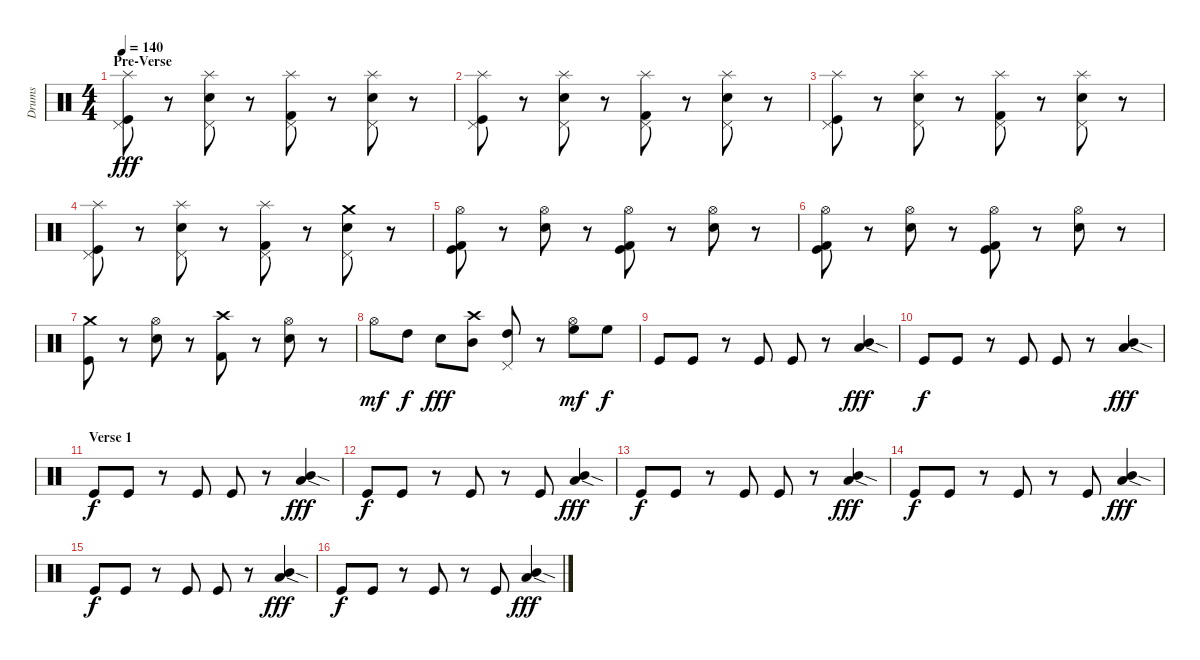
\track ("Drums" "Drums") {instrument percussion}
\staff {score}
\articulation defaults
\ts (4 4)
\section ("" "Pre-Verse")
\tempo 140
\clef neutral
\ks c
("Splash (hit)" "Pedal Hi-Hat (hit)" "Kick (hit)").8{dy fff} r.8 ("Splash (hit)" "Pedal Hi-Hat (hit)" "Electric Snare (hit)").8 r.8 ("Splash (hit)" "Pedal Hi-Hat (hit)" "Kick (hit) 2").8 r.8 ("Splash (hit)" "Pedal Hi-Hat (hit)" "Electric Snare (hit)").8 r.8 |
("Splash (hit)" "Pedal Hi-Hat (hit)" "Kick (hit)").8 r.8 ("Splash (hit)" "Pedal Hi-Hat (hit)" "Electric Snare (hit)").8 r.8 ("Splash (hit)" "Pedal Hi-Hat (hit)" "Kick (hit) 2").8 r.8 ("Splash (hit)" "Pedal Hi-Hat (hit)" "Electric Snare (hit)").8 r.8 |
("Splash (hit)" "Pedal Hi-Hat (hit)" "Kick (hit)").8 r.8 ("Splash (hit)" "Pedal Hi-Hat (hit)" "Electric Snare (hit)").8 r.8 ("Splash (hit)" "Pedal Hi-Hat (hit)" "Kick (hit) 2").8 r.8 ("Splash (hit)" "Pedal Hi-Hat (hit)" "Electric Snare (hit)").8 r.8 |
("Splash (hit)" "Pedal Hi-Hat (hit)" "Kick (hit)").8 r.8 ("Splash (hit)" "Pedal Hi-Hat (hit)" "Electric Snare (hit)").8 r.8 ("Splash (hit)" "Pedal Hi-Hat (hit)" "Kick (hit) 2").8 r.8 ("Crash medium (hit)" "Pedal Hi-Hat (hit)" "Electric Snare (hit)").8 r.8 |
("Hi-Hat (open)" "Kick (hit) 2" "Kick (hit)").8 r.8 ("Hi-Hat (open)" "Electric Snare (hit)").8 r.8 ("Hi-Hat (open)" "Kick (hit) 2" "Kick (hit)").8 r.8 ("Hi-Hat (open)" "Electric Snare (hit)").8 r.8 |
("Hi-Hat (open)" "Kick (hit) 2" "Kick (hit)").8 r.8 ("Hi-Hat (open)" "Electric Snare (hit)").8 r.8 ("Hi-Hat (open)" "Kick (hit) 2" "Kick (hit)").8 r.8 ("Hi-Hat (open)" "Electric Snare (hit)").8 r.8 |
("Crash medium (hit)" "Kick (hit)").8 r.8 ("Hi-Hat (open)" "Electric Snare (hit)").8 r.8 ("Crash high (hit)" "Kick (hit) 2").8 r.8 ("Hi-Hat (open)" "Electric Snare (hit)").8 r.8 |
"Hi-Hat (open)".8{dy mf} "High Tom (hit)".8{dy f} "Electric Snare (hit)".8{dy fff} ("Crash high (hit)" "Mid Tom (hit)").8 ("Pedal Hi-Hat (hit)" "High Tom (hit)").8 r.8 ("Hi-Hat (open)" "High Floor Tom (hit)").8{dy mf} "High Floor Tom (hit)".8{dy f} |
"Kick (hit)".8 "Kick (hit)".8 r.8 "Kick (hit)".8 "Kick (hit)".8 r.8 ("Mid Tom (hit)"{sod} "Low Tom (hit)"{sod}).4{dy fff} |
"Kick (hit)".8{dy f} "Kick (hit)".8 r.8 "Kick (hit)".8 "Kick (hit)".8 r.8 ("Mid Tom (hit)"{sod} "Low Tom (hit)"{sod}).4{dy fff} |
\section ("" "Verse 1")
"Kick (hit)".8{dy f} "Kick (hit)".8 r.8 "Kick (hit)".8 "Kick (hit)".8 r.8 ("Mid Tom (hit)"{sod} "Low Tom (hit)"{sod}).4{dy fff} |
"Kick (hit)".8{dy f} "Kick (hit)".8 r.8 "Kick (hit)".8 r.8 "Kick (hit)".8 ("Mid Tom (hit)"{sod} "Low Tom (hit)"{sod}).4{dy fff} |
"Kick (hit)".8{dy f} "Kick (hit)".8 r.8 "Kick (hit)".8 "Kick (hit)".8 r.8 ("Mid Tom (hit)"{sod} "Low Tom (hit)"{sod}).4{dy fff} |
"Kick (hit)".8{dy f} "Kick (hit)".8 r.8 "Kick (hit)".8 r.8 "Kick (hit)".8 ("Mid Tom (hit)"{sod} "Low Tom (hit)"{sod}).4{dy fff} |
"Kick (hit)".8{dy f} "Kick (hit)".8 r.8 "Kick (hit)".8 "Kick (hit)".8 r.8 ("Mid Tom (hit)"{sod} "Low Tom (hit)"{sod}).4{dy fff} |
"Kick (hit)".8{dy f} "Kick (hit)".8 r.8 "Kick (hit)".8 r.8 "Kick (hit)".8 ("Mid Tom (hit)"{sod} "Low Tom (hit)"{sod}).4{dy fff}
